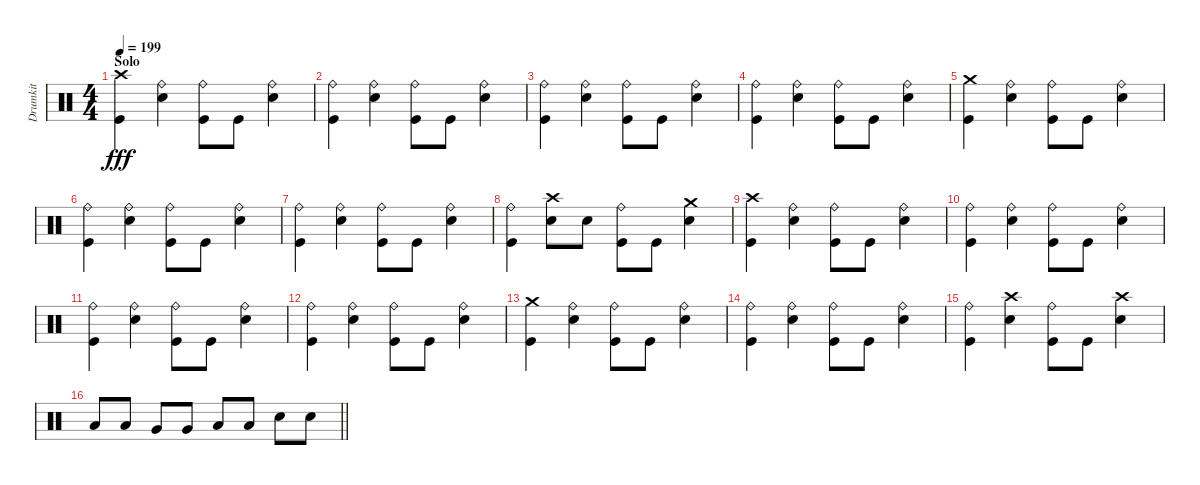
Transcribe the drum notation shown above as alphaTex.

\track ("Drumkit" "Drumkit") {instrument percussion}
\staff
\articulation defaults
\ts (4 4)
\section ("" "Solo")
\tempo 199
\clef neutral
\ks c
("Crash high (hit)" "Kick (hit)").4{dy fff} ("Snare (hit) 2" "Ride (bell)").4 ("Kick (hit)" "Ride (bell)").8 "Kick (hit)".8 ("Snare (hit) 2" "Ride (bell)").4 |
("Kick (hit)" "Ride (bell)").4 ("Snare (hit) 2" "Ride (bell)").4 ("Kick (hit)" "Ride (bell)").8 "Kick (hit)".8 ("Snare (hit) 2" "Ride (bell)").4 |
("Kick (hit)" "Ride (bell)").4 ("Snare (hit) 2" "Ride (bell)").4 ("Kick (hit)" "Ride (bell)").8 "Kick (hit)".8 ("Snare (hit) 2" "Ride (bell)").4 |
("Kick (hit)" "Ride (bell)").4 ("Snare (hit) 2" "Ride (bell)").4 ("Kick (hit)" "Ride (bell)").8 "Kick (hit)".8 ("Snare (hit) 2" "Ride (bell)").4 |
("Kick (hit)" "Crash medium (hit)").4 ("Snare (hit) 2" "Ride (bell)").4 ("Kick (hit)" "Ride (bell)").8 "Kick (hit)".8 ("Snare (hit) 2" "Ride (bell)").4 |
("Kick (hit)" "Ride (bell)").4 ("Snare (hit) 2" "Ride (bell)").4 ("Kick (hit)" "Ride (bell)").8 "Kick (hit)".8 ("Snare (hit) 2" "Ride (bell)").4 |
("Kick (hit)" "Ride (bell)").4 ("Snare (hit) 2" "Ride (bell)").4 ("Kick (hit)" "Ride (bell)").8 "Kick (hit)".8 ("Snare (hit) 2" "Ride (bell)").4 |
("Kick (hit)" "Ride (bell)").4 ("Snare (hit) 2" "Crash high (hit)").8 "Snare (hit) 2".8 ("Kick (hit)" "Ride (bell)").8 "Kick (hit)".8 ("Snare (hit) 2" "Crash medium (hit)").4 |
("Kick (hit)" "Crash high (hit)").4 ("Snare (hit) 2" "Ride (bell)").4 ("Kick (hit)" "Ride (bell)").8 "Kick (hit)".8 ("Snare (hit) 2" "Ride (bell)").4 |
("Kick (hit)" "Ride (bell)").4 ("Snare (hit) 2" "Ride (bell)").4 ("Kick (hit)" "Ride (bell)").8 "Kick (hit)".8 ("Snare (hit) 2" "Ride (bell)").4 |
("Kick (hit)" "Ride (bell)").4 ("Snare (hit) 2" "Ride (bell)").4 ("Kick (hit)" "Ride (bell)").8 "Kick (hit)".8 ("Snare (hit) 2" "Ride (bell)").4 |
("Kick (hit)" "Ride (bell)").4 ("Snare (hit) 2" "Ride (bell)").4 ("Kick (hit)" "Ride (bell)").8 "Kick (hit)".8 ("Snare (hit) 2" "Ride (bell)").4 |
("Kick (hit)" "Crash medium (hit)").4 ("Snare (hit) 2" "Ride (bell)").4 ("Kick (hit)" "Ride (bell)").8 "Kick (hit)".8 ("Snare (hit) 2" "Ride (bell)").4 |
("Kick (hit)" "Ride (bell)").4 ("Snare (hit) 2" "Ride (bell)").4 ("Kick (hit)" "Ride (bell)").8 "Kick (hit)".8 ("Snare (hit) 2" "Ride (bell)").4 |
("Kick (hit)" "Ride (bell)").4 ("Snare (hit) 2" "Crash high (hit)").4 ("Kick (hit)" "Ride (bell)").8 "Kick (hit)".8 ("Snare (hit) 2" "Crash high (hit)").4 |
\barLineRight lightlight "Low Tom (hit)".8 "Low Tom (hit)".8 "Very Low Tom (hit)".8 "Very Low Tom (hit)".8 "Low Floor Tom (hit)".8 "Low Floor Tom (hit)".8 "Snare (hit) 2".8 "Snare (hit) 2".8
